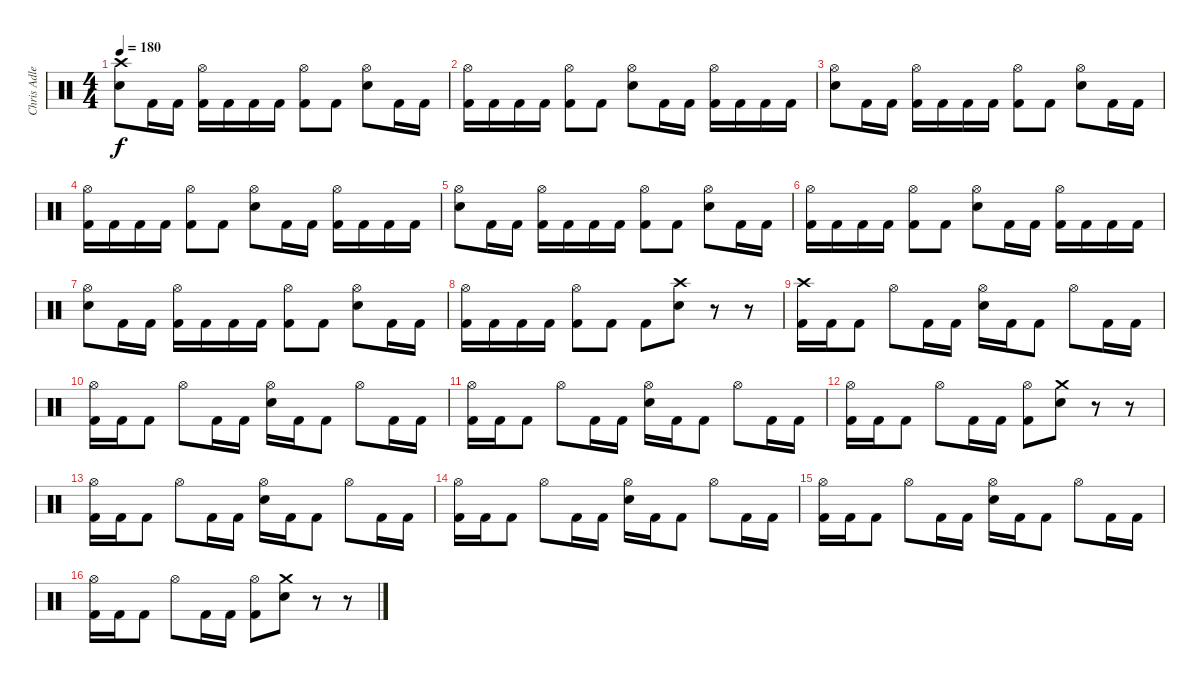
\track ("Chris Adler - Drums" "Chris Adle") {instrument percussion}
\staff {score}
\articulation defaults
\ts (4 4)
\tempo 180
\clef neutral
\ks c
("Crash high (hit)" "Snare (hit) 2").8{dy f} "Kick (hit) 2".16 "Kick (hit) 2".16 ("Hi-Hat (open)" "Kick (hit) 2").16 "Kick (hit) 2".16 "Kick (hit) 2".16 "Kick (hit) 2".16 ("Hi-Hat (open)" "Kick (hit) 2").8 "Kick (hit) 2".8 ("Hi-Hat (open)" "Snare (hit) 2").8 "Kick (hit) 2".16 "Kick (hit) 2".16 |
("Hi-Hat (open)" "Kick (hit) 2").16 "Kick (hit) 2".16 "Kick (hit) 2".16 "Kick (hit) 2".16 ("Hi-Hat (open)" "Kick (hit) 2").8 "Kick (hit) 2".8 ("Hi-Hat (open)" "Snare (hit) 2").8 "Kick (hit) 2".16 "Kick (hit) 2".16 ("Hi-Hat (open)" "Kick (hit) 2").16 "Kick (hit) 2".16 "Kick (hit) 2".16 "Kick (hit) 2".16 |
("Hi-Hat (open)" "Snare (hit) 2").8 "Kick (hit) 2".16 "Kick (hit) 2".16 ("Hi-Hat (open)" "Kick (hit) 2").16 "Kick (hit) 2".16 "Kick (hit) 2".16 "Kick (hit) 2".16 ("Hi-Hat (open)" "Kick (hit) 2").8 "Kick (hit) 2".8 ("Hi-Hat (open)" "Snare (hit) 2").8 "Kick (hit) 2".16 "Kick (hit) 2".16 |
("Hi-Hat (open)" "Kick (hit) 2").16 "Kick (hit) 2".16 "Kick (hit) 2".16 "Kick (hit) 2".16 ("Hi-Hat (open)" "Kick (hit) 2").8 "Kick (hit) 2".8 ("Hi-Hat (open)" "Snare (hit) 2").8 "Kick (hit) 2".16 "Kick (hit) 2".16 ("Hi-Hat (open)" "Kick (hit) 2").16 "Kick (hit) 2".16 "Kick (hit) 2".16 "Kick (hit) 2".16 |
("Hi-Hat (open)" "Snare (hit) 2").8 "Kick (hit) 2".16 "Kick (hit) 2".16 ("Hi-Hat (open)" "Kick (hit) 2").16 "Kick (hit) 2".16 "Kick (hit) 2".16 "Kick (hit) 2".16 ("Hi-Hat (open)" "Kick (hit) 2").8 "Kick (hit) 2".8 ("Hi-Hat (open)" "Snare (hit) 2").8 "Kick (hit) 2".16 "Kick (hit) 2".16 |
("Hi-Hat (open)" "Kick (hit) 2").16 "Kick (hit) 2".16 "Kick (hit) 2".16 "Kick (hit) 2".16 ("Hi-Hat (open)" "Kick (hit) 2").8 "Kick (hit) 2".8 ("Hi-Hat (open)" "Snare (hit) 2").8 "Kick (hit) 2".16 "Kick (hit) 2".16 ("Hi-Hat (open)" "Kick (hit) 2").16 "Kick (hit) 2".16 "Kick (hit) 2".16 "Kick (hit) 2".16 |
("Hi-Hat (open)" "Snare (hit) 2").8 "Kick (hit) 2".16 "Kick (hit) 2".16 ("Hi-Hat (open)" "Kick (hit) 2").16 "Kick (hit) 2".16 "Kick (hit) 2".16 "Kick (hit) 2".16 ("Hi-Hat (open)" "Kick (hit) 2").8 "Kick (hit) 2".8 ("Hi-Hat (open)" "Snare (hit) 2").8 "Kick (hit) 2".16 "Kick (hit) 2".16 |
("Hi-Hat (open)" "Kick (hit) 2").16 "Kick (hit) 2".16 "Kick (hit) 2".16 "Kick (hit) 2".16 ("Hi-Hat (open)" "Kick (hit) 2").8 "Kick (hit) 2".8 "Kick (hit) 2".8 ("Crash high (hit)" "Snare (hit) 2").8 r.8 r.8 |
("Crash high (hit)" "Kick (hit) 2").16 "Kick (hit) 2".16 "Kick (hit) 2".8 "Hi-Hat (open)".8 "Kick (hit) 2".16 "Kick (hit) 2".16 ("Hi-Hat (open)" "Snare (hit) 2").16 "Kick (hit) 2".16 "Kick (hit) 2".8 "Hi-Hat (open)".8 "Kick (hit) 2".16 "Kick (hit) 2".16 |
("Hi-Hat (open)" "Kick (hit) 2").16 "Kick (hit) 2".16 "Kick (hit) 2".8 "Hi-Hat (open)".8 "Kick (hit) 2".16 "Kick (hit) 2".16 ("Hi-Hat (open)" "Snare (hit) 2").16 "Kick (hit) 2".16 "Kick (hit) 2".8 "Hi-Hat (open)".8 "Kick (hit) 2".16 "Kick (hit) 2".16 |
("Hi-Hat (open)" "Kick (hit) 2").16 "Kick (hit) 2".16 "Kick (hit) 2".8 "Hi-Hat (open)".8 "Kick (hit) 2".16 "Kick (hit) 2".16 ("Hi-Hat (open)" "Snare (hit) 2").16 "Kick (hit) 2".16 "Kick (hit) 2".8 "Hi-Hat (open)".8 "Kick (hit) 2".16 "Kick (hit) 2".16 |
("Hi-Hat (open)" "Kick (hit) 2").16 "Kick (hit) 2".16 "Kick (hit) 2".8 "Hi-Hat (open)".8 "Kick (hit) 2".16 "Kick (hit) 2".16 ("Hi-Hat (open)" "Kick (hit) 2").8 ("Crash medium (hit)" "Snare (hit) 2").8 r.8 r.8 |
("Hi-Hat (open)" "Kick (hit) 2").16 "Kick (hit) 2".16 "Kick (hit) 2".8 "Hi-Hat (open)".8 "Kick (hit) 2".16 "Kick (hit) 2".16 ("Hi-Hat (open)" "Snare (hit) 2").16 "Kick (hit) 2".16 "Kick (hit) 2".8 "Hi-Hat (open)".8 "Kick (hit) 2".16 "Kick (hit) 2".16 |
("Hi-Hat (open)" "Kick (hit) 2").16 "Kick (hit) 2".16 "Kick (hit) 2".8 "Hi-Hat (open)".8 "Kick (hit) 2".16 "Kick (hit) 2".16 ("Hi-Hat (open)" "Snare (hit) 2").16 "Kick (hit) 2".16 "Kick (hit) 2".8 "Hi-Hat (open)".8 "Kick (hit) 2".16 "Kick (hit) 2".16 |
("Hi-Hat (open)" "Kick (hit) 2").16 "Kick (hit) 2".16 "Kick (hit) 2".8 "Hi-Hat (open)".8 "Kick (hit) 2".16 "Kick (hit) 2".16 ("Hi-Hat (open)" "Snare (hit) 2").16 "Kick (hit) 2".16 "Kick (hit) 2".8 "Hi-Hat (open)".8 "Kick (hit) 2".16 "Kick (hit) 2".16 |
("Hi-Hat (open)" "Kick (hit) 2").16 "Kick (hit) 2".16 "Kick (hit) 2".8 "Hi-Hat (open)".8 "Kick (hit) 2".16 "Kick (hit) 2".16 ("Hi-Hat (open)" "Kick (hit) 2").8 ("Crash medium (hit)" "Snare (hit) 2").8 r.8 r.8
